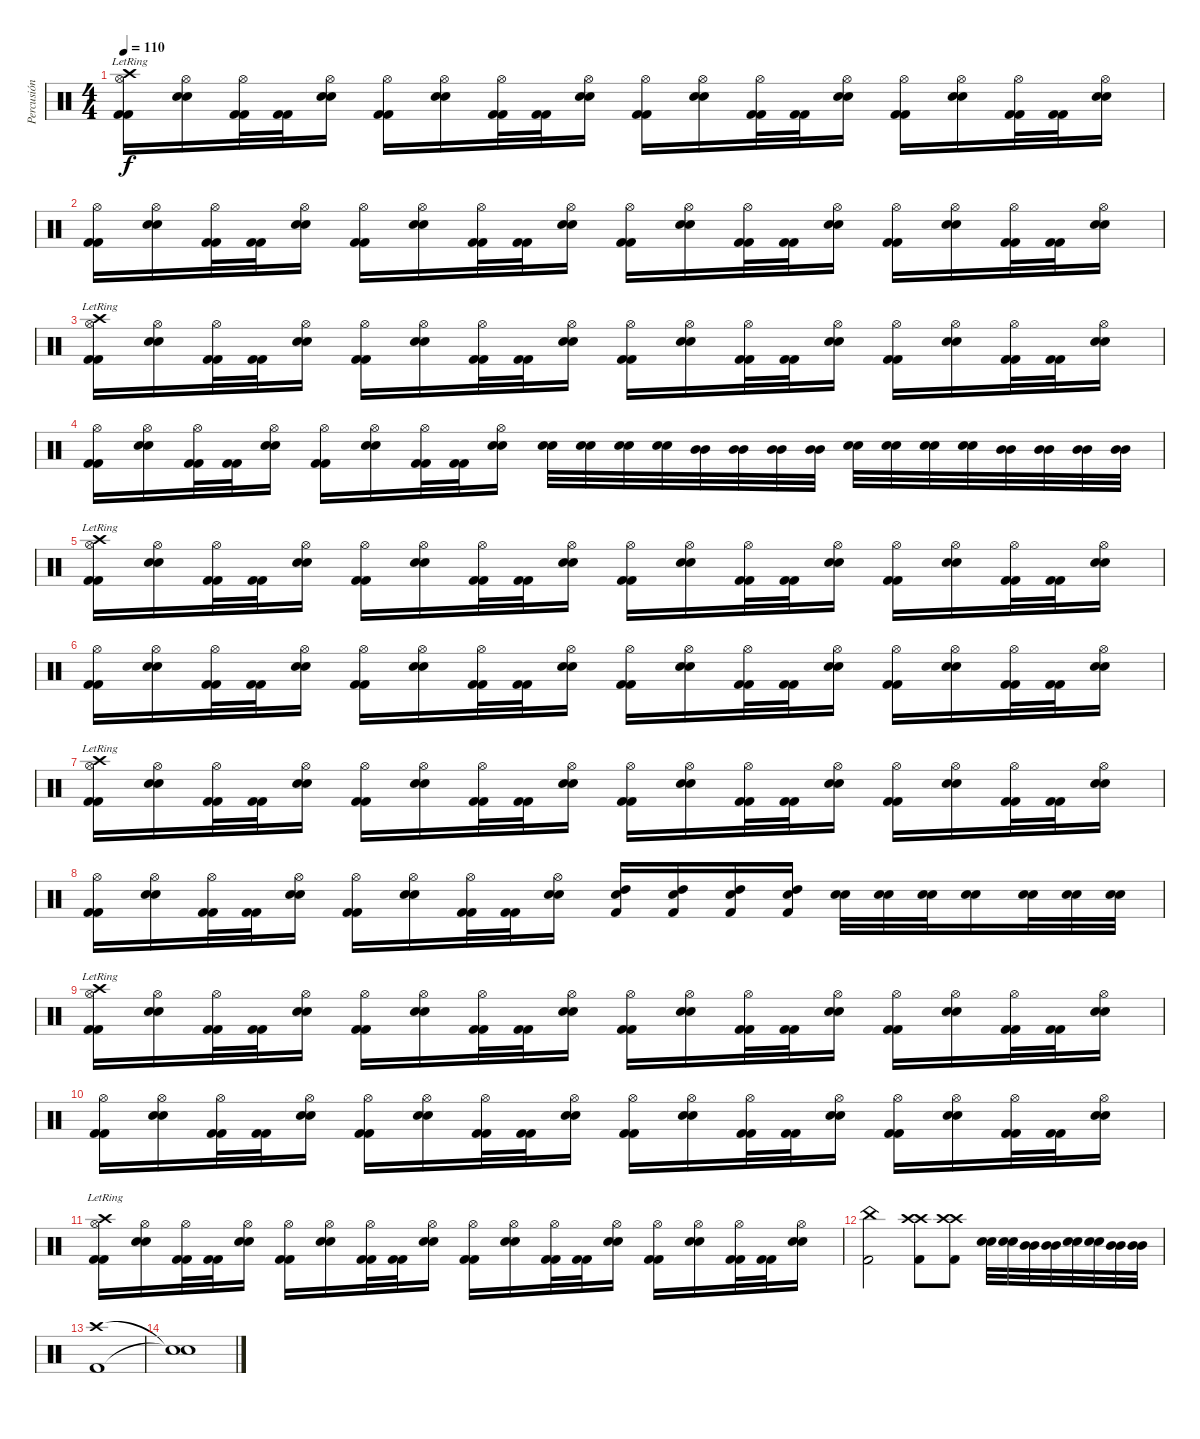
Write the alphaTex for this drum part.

\track ("Percusión" "Percusión") {instrument percussion}
\staff {score}
\articulation defaults
\ts (4 4)
\tempo 110
\clef neutral
\ks c
("Kick (hit) 2" "Kick (hit) 2" "Hi-Hat (open)" "Crash high (hit)"{lr}).16{dy f} ("Snare (hit) 2" "Snare (hit) 2" "Hi-Hat (open)").16 ("Kick (hit) 2" "Kick (hit) 2" "Hi-Hat (open)").32 ("Kick (hit) 2" "Kick (hit) 2").32 ("Snare (hit) 2" "Snare (hit) 2" "Hi-Hat (open)").16 ("Kick (hit) 2" "Kick (hit) 2" "Hi-Hat (open)").16 ("Snare (hit) 2" "Snare (hit) 2" "Hi-Hat (open)").16 ("Kick (hit) 2" "Kick (hit) 2" "Hi-Hat (open)").32 ("Kick (hit) 2" "Kick (hit) 2").32 ("Snare (hit) 2" "Snare (hit) 2" "Hi-Hat (open)").16 ("Kick (hit) 2" "Kick (hit) 2" "Hi-Hat (open)").16 ("Snare (hit) 2" "Snare (hit) 2" "Hi-Hat (open)").16 ("Kick (hit) 2" "Kick (hit) 2" "Hi-Hat (open)").32 ("Kick (hit) 2" "Kick (hit) 2").32 ("Snare (hit) 2" "Snare (hit) 2" "Hi-Hat (open)").16 ("Kick (hit) 2" "Kick (hit) 2" "Hi-Hat (open)").16 ("Snare (hit) 2" "Snare (hit) 2" "Hi-Hat (open)").16 ("Kick (hit) 2" "Kick (hit) 2" "Hi-Hat (open)").32 ("Kick (hit) 2" "Kick (hit) 2").32 ("Snare (hit) 2" "Snare (hit) 2" "Hi-Hat (open)").16 |
("Kick (hit) 2" "Kick (hit) 2" "Hi-Hat (open)").16 ("Snare (hit) 2" "Snare (hit) 2" "Hi-Hat (open)").16 ("Kick (hit) 2" "Kick (hit) 2" "Hi-Hat (open)").32 ("Kick (hit) 2" "Kick (hit) 2").32 ("Snare (hit) 2" "Snare (hit) 2" "Hi-Hat (open)").16 ("Kick (hit) 2" "Kick (hit) 2" "Hi-Hat (open)").16 ("Snare (hit) 2" "Snare (hit) 2" "Hi-Hat (open)").16 ("Kick (hit) 2" "Kick (hit) 2" "Hi-Hat (open)").32 ("Kick (hit) 2" "Kick (hit) 2").32 ("Snare (hit) 2" "Snare (hit) 2" "Hi-Hat (open)").16 ("Kick (hit) 2" "Kick (hit) 2" "Hi-Hat (open)").16 ("Snare (hit) 2" "Snare (hit) 2" "Hi-Hat (open)").16 ("Kick (hit) 2" "Kick (hit) 2" "Hi-Hat (open)").32 ("Kick (hit) 2" "Kick (hit) 2").32 ("Snare (hit) 2" "Snare (hit) 2" "Hi-Hat (open)").16 ("Kick (hit) 2" "Kick (hit) 2" "Hi-Hat (open)").16 ("Snare (hit) 2" "Snare (hit) 2" "Hi-Hat (open)").16 ("Kick (hit) 2" "Kick (hit) 2" "Hi-Hat (open)").32 ("Kick (hit) 2" "Kick (hit) 2").32 ("Snare (hit) 2" "Snare (hit) 2" "Hi-Hat (open)").16 |
("Kick (hit) 2" "Kick (hit) 2" "Hi-Hat (open)" "Crash high (hit)"{lr}).16 ("Snare (hit) 2" "Snare (hit) 2" "Hi-Hat (open)").16 ("Kick (hit) 2" "Kick (hit) 2" "Hi-Hat (open)").32 ("Kick (hit) 2" "Kick (hit) 2").32 ("Snare (hit) 2" "Snare (hit) 2" "Hi-Hat (open)").16 ("Kick (hit) 2" "Kick (hit) 2" "Hi-Hat (open)").16 ("Snare (hit) 2" "Snare (hit) 2" "Hi-Hat (open)").16 ("Kick (hit) 2" "Kick (hit) 2" "Hi-Hat (open)").32 ("Kick (hit) 2" "Kick (hit) 2").32 ("Snare (hit) 2" "Snare (hit) 2" "Hi-Hat (open)").16 ("Kick (hit) 2" "Kick (hit) 2" "Hi-Hat (open)").16 ("Snare (hit) 2" "Snare (hit) 2" "Hi-Hat (open)").16 ("Kick (hit) 2" "Kick (hit) 2" "Hi-Hat (open)").32 ("Kick (hit) 2" "Kick (hit) 2").32 ("Snare (hit) 2" "Snare (hit) 2" "Hi-Hat (open)").16 ("Kick (hit) 2" "Kick (hit) 2" "Hi-Hat (open)").16 ("Snare (hit) 2" "Snare (hit) 2" "Hi-Hat (open)").16 ("Kick (hit) 2" "Kick (hit) 2" "Hi-Hat (open)").32 ("Kick (hit) 2" "Kick (hit) 2").32 ("Snare (hit) 2" "Snare (hit) 2" "Hi-Hat (open)").16 |
("Kick (hit) 2" "Kick (hit) 2" "Hi-Hat (open)").16 ("Snare (hit) 2" "Snare (hit) 2" "Hi-Hat (open)").16 ("Kick (hit) 2" "Kick (hit) 2" "Hi-Hat (open)").32 ("Kick (hit) 2" "Kick (hit) 2").32 ("Snare (hit) 2" "Snare (hit) 2" "Hi-Hat (open)").16 ("Kick (hit) 2" "Kick (hit) 2" "Hi-Hat (open)").16 ("Snare (hit) 2" "Snare (hit) 2" "Hi-Hat (open)").16 ("Kick (hit) 2" "Kick (hit) 2" "Hi-Hat (open)").32 ("Kick (hit) 2" "Kick (hit) 2").32 ("Snare (hit) 2" "Snare (hit) 2" "Hi-Hat (open)").16 ("Snare (hit) 2" "Snare (hit) 2").32 ("Snare (hit) 2" "Snare (hit) 2").32 ("Snare (hit) 2" "Snare (hit) 2").32 ("Snare (hit) 2" "Snare (hit) 2").32 ("Mid Tom (hit)" "Mid Tom (hit)").32 ("Mid Tom (hit)" "Mid Tom (hit)").32 ("Mid Tom (hit)" "Mid Tom (hit)").32 ("Mid Tom (hit)" "Mid Tom (hit)").32 ("Snare (hit) 2" "Snare (hit) 2").32 ("Snare (hit) 2" "Snare (hit) 2").32 ("Snare (hit) 2" "Snare (hit) 2").32 ("Snare (hit) 2" "Snare (hit) 2").32 ("Mid Tom (hit)" "Mid Tom (hit)").32 ("Mid Tom (hit)" "Mid Tom (hit)").32 ("Mid Tom (hit)" "Mid Tom (hit)").32 ("Mid Tom (hit)" "Mid Tom (hit)").32 |
("Kick (hit) 2" "Kick (hit) 2" "Hi-Hat (open)" "Crash high (hit)"{lr}).16 ("Snare (hit) 2" "Snare (hit) 2" "Hi-Hat (open)").16 ("Kick (hit) 2" "Kick (hit) 2" "Hi-Hat (open)").32 ("Kick (hit) 2" "Kick (hit) 2").32 ("Snare (hit) 2" "Snare (hit) 2" "Hi-Hat (open)").16 ("Kick (hit) 2" "Kick (hit) 2" "Hi-Hat (open)").16 ("Snare (hit) 2" "Snare (hit) 2" "Hi-Hat (open)").16 ("Kick (hit) 2" "Kick (hit) 2" "Hi-Hat (open)").32 ("Kick (hit) 2" "Kick (hit) 2").32 ("Snare (hit) 2" "Snare (hit) 2" "Hi-Hat (open)").16 ("Kick (hit) 2" "Kick (hit) 2" "Hi-Hat (open)").16 ("Snare (hit) 2" "Snare (hit) 2" "Hi-Hat (open)").16 ("Kick (hit) 2" "Kick (hit) 2" "Hi-Hat (open)").32 ("Kick (hit) 2" "Kick (hit) 2").32 ("Snare (hit) 2" "Snare (hit) 2" "Hi-Hat (open)").16 ("Kick (hit) 2" "Kick (hit) 2" "Hi-Hat (open)").16 ("Snare (hit) 2" "Snare (hit) 2" "Hi-Hat (open)").16 ("Kick (hit) 2" "Kick (hit) 2" "Hi-Hat (open)").32 ("Kick (hit) 2" "Kick (hit) 2").32 ("Snare (hit) 2" "Snare (hit) 2" "Hi-Hat (open)").16 |
("Kick (hit) 2" "Kick (hit) 2" "Hi-Hat (open)").16 ("Snare (hit) 2" "Snare (hit) 2" "Hi-Hat (open)").16 ("Kick (hit) 2" "Kick (hit) 2" "Hi-Hat (open)").32 ("Kick (hit) 2" "Kick (hit) 2").32 ("Snare (hit) 2" "Snare (hit) 2" "Hi-Hat (open)").16 ("Kick (hit) 2" "Kick (hit) 2" "Hi-Hat (open)").16 ("Snare (hit) 2" "Snare (hit) 2" "Hi-Hat (open)").16 ("Kick (hit) 2" "Kick (hit) 2" "Hi-Hat (open)").32 ("Kick (hit) 2" "Kick (hit) 2").32 ("Snare (hit) 2" "Snare (hit) 2" "Hi-Hat (open)").16 ("Kick (hit) 2" "Kick (hit) 2" "Hi-Hat (open)").16 ("Snare (hit) 2" "Snare (hit) 2" "Hi-Hat (open)").16 ("Kick (hit) 2" "Kick (hit) 2" "Hi-Hat (open)").32 ("Kick (hit) 2" "Kick (hit) 2").32 ("Snare (hit) 2" "Snare (hit) 2" "Hi-Hat (open)").16 ("Kick (hit) 2" "Kick (hit) 2" "Hi-Hat (open)").16 ("Snare (hit) 2" "Snare (hit) 2" "Hi-Hat (open)").16 ("Kick (hit) 2" "Kick (hit) 2" "Hi-Hat (open)").32 ("Kick (hit) 2" "Kick (hit) 2").32 ("Snare (hit) 2" "Snare (hit) 2" "Hi-Hat (open)").16 |
("Kick (hit) 2" "Kick (hit) 2" "Hi-Hat (open)" "Crash high (hit)"{lr}).16 ("Snare (hit) 2" "Snare (hit) 2" "Hi-Hat (open)").16 ("Kick (hit) 2" "Kick (hit) 2" "Hi-Hat (open)").32 ("Kick (hit) 2" "Kick (hit) 2").32 ("Snare (hit) 2" "Snare (hit) 2" "Hi-Hat (open)").16 ("Kick (hit) 2" "Kick (hit) 2" "Hi-Hat (open)").16 ("Snare (hit) 2" "Snare (hit) 2" "Hi-Hat (open)").16 ("Kick (hit) 2" "Kick (hit) 2" "Hi-Hat (open)").32 ("Kick (hit) 2" "Kick (hit) 2").32 ("Snare (hit) 2" "Snare (hit) 2" "Hi-Hat (open)").16 ("Kick (hit) 2" "Kick (hit) 2" "Hi-Hat (open)").16 ("Snare (hit) 2" "Snare (hit) 2" "Hi-Hat (open)").16 ("Kick (hit) 2" "Kick (hit) 2" "Hi-Hat (open)").32 ("Kick (hit) 2" "Kick (hit) 2").32 ("Snare (hit) 2" "Snare (hit) 2" "Hi-Hat (open)").16 ("Kick (hit) 2" "Kick (hit) 2" "Hi-Hat (open)").16 ("Snare (hit) 2" "Snare (hit) 2" "Hi-Hat (open)").16 ("Kick (hit) 2" "Kick (hit) 2" "Hi-Hat (open)").32 ("Kick (hit) 2" "Kick (hit) 2").32 ("Snare (hit) 2" "Snare (hit) 2" "Hi-Hat (open)").16 |
("Kick (hit) 2" "Kick (hit) 2" "Hi-Hat (open)").16 ("Snare (hit) 2" "Snare (hit) 2" "Hi-Hat (open)").16 ("Kick (hit) 2" "Kick (hit) 2" "Hi-Hat (open)").32 ("Kick (hit) 2" "Kick (hit) 2").32 ("Snare (hit) 2" "Snare (hit) 2" "Hi-Hat (open)").16 ("Kick (hit) 2" "Kick (hit) 2" "Hi-Hat (open)").16 ("Snare (hit) 2" "Snare (hit) 2" "Hi-Hat (open)").16 ("Kick (hit) 2" "Kick (hit) 2" "Hi-Hat (open)").32 ("Kick (hit) 2" "Kick (hit) 2").32 ("Snare (hit) 2" "Snare (hit) 2" "Hi-Hat (open)").16 ("Snare (hit) 2" "High Tom (hit)" "Kick (hit) 2").16 ("Snare (hit) 2" "High Tom (hit)" "Kick (hit) 2").16 ("Snare (hit) 2" "High Tom (hit)" "Kick (hit) 2").16 ("Snare (hit) 2" "High Tom (hit)" "Kick (hit) 2").16 ("Snare (hit) 2" "Snare (hit) 2").32 ("Snare (hit) 2" "Snare (hit) 2").32 ("Snare (hit) 2" "Snare (hit) 2").32 ("Snare (hit) 2" "Snare (hit) 2").16 ("Snare (hit) 2" "Snare (hit) 2").32 ("Snare (hit) 2" "Snare (hit) 2").32 ("Snare (hit) 2" "Snare (hit) 2").32 |
("Kick (hit) 2" "Kick (hit) 2" "Hi-Hat (open)" "Crash high (hit)"{lr}).16 ("Snare (hit) 2" "Snare (hit) 2" "Hi-Hat (open)").16 ("Kick (hit) 2" "Kick (hit) 2" "Hi-Hat (open)").32 ("Kick (hit) 2" "Kick (hit) 2").32 ("Snare (hit) 2" "Snare (hit) 2" "Hi-Hat (open)").16 ("Kick (hit) 2" "Kick (hit) 2" "Hi-Hat (open)").16 ("Snare (hit) 2" "Snare (hit) 2" "Hi-Hat (open)").16 ("Kick (hit) 2" "Kick (hit) 2" "Hi-Hat (open)").32 ("Kick (hit) 2" "Kick (hit) 2").32 ("Snare (hit) 2" "Snare (hit) 2" "Hi-Hat (open)").16 ("Kick (hit) 2" "Kick (hit) 2" "Hi-Hat (open)").16 ("Snare (hit) 2" "Snare (hit) 2" "Hi-Hat (open)").16 ("Kick (hit) 2" "Kick (hit) 2" "Hi-Hat (open)").32 ("Kick (hit) 2" "Kick (hit) 2").32 ("Snare (hit) 2" "Snare (hit) 2" "Hi-Hat (open)").16 ("Kick (hit) 2" "Kick (hit) 2" "Hi-Hat (open)").16 ("Snare (hit) 2" "Snare (hit) 2" "Hi-Hat (open)").16 ("Kick (hit) 2" "Kick (hit) 2" "Hi-Hat (open)").32 ("Kick (hit) 2" "Kick (hit) 2").32 ("Snare (hit) 2" "Snare (hit) 2" "Hi-Hat (open)").16 |
("Kick (hit) 2" "Kick (hit) 2" "Hi-Hat (open)").16 ("Snare (hit) 2" "Snare (hit) 2" "Hi-Hat (open)").16 ("Kick (hit) 2" "Kick (hit) 2" "Hi-Hat (open)").32 ("Kick (hit) 2" "Kick (hit) 2").32 ("Snare (hit) 2" "Snare (hit) 2" "Hi-Hat (open)").16 ("Kick (hit) 2" "Kick (hit) 2" "Hi-Hat (open)").16 ("Snare (hit) 2" "Snare (hit) 2" "Hi-Hat (open)").16 ("Kick (hit) 2" "Kick (hit) 2" "Hi-Hat (open)").32 ("Kick (hit) 2" "Kick (hit) 2").32 ("Snare (hit) 2" "Snare (hit) 2" "Hi-Hat (open)").16 ("Kick (hit) 2" "Kick (hit) 2" "Hi-Hat (open)").16 ("Snare (hit) 2" "Snare (hit) 2" "Hi-Hat (open)").16 ("Kick (hit) 2" "Kick (hit) 2" "Hi-Hat (open)").32 ("Kick (hit) 2" "Kick (hit) 2").32 ("Snare (hit) 2" "Snare (hit) 2" "Hi-Hat (open)").16 ("Kick (hit) 2" "Kick (hit) 2" "Hi-Hat (open)").16 ("Snare (hit) 2" "Snare (hit) 2" "Hi-Hat (open)").16 ("Kick (hit) 2" "Kick (hit) 2" "Hi-Hat (open)").32 ("Kick (hit) 2" "Kick (hit) 2").32 ("Snare (hit) 2" "Snare (hit) 2" "Hi-Hat (open)").16 |
("Kick (hit) 2" "Kick (hit) 2" "Hi-Hat (open)" "Crash high (hit)"{lr}).16 ("Snare (hit) 2" "Snare (hit) 2" "Hi-Hat (open)").16 ("Kick (hit) 2" "Kick (hit) 2" "Hi-Hat (open)").32 ("Kick (hit) 2" "Kick (hit) 2").32 ("Snare (hit) 2" "Snare (hit) 2" "Hi-Hat (open)").16 ("Kick (hit) 2" "Kick (hit) 2" "Hi-Hat (open)").16 ("Snare (hit) 2" "Snare (hit) 2" "Hi-Hat (open)").16 ("Kick (hit) 2" "Kick (hit) 2" "Hi-Hat (open)").32 ("Kick (hit) 2" "Kick (hit) 2").32 ("Snare (hit) 2" "Snare (hit) 2" "Hi-Hat (open)").16 ("Kick (hit) 2" "Kick (hit) 2" "Hi-Hat (open)").16 ("Snare (hit) 2" "Snare (hit) 2" "Hi-Hat (open)").16 ("Kick (hit) 2" "Kick (hit) 2" "Hi-Hat (open)").32 ("Kick (hit) 2" "Kick (hit) 2").32 ("Snare (hit) 2" "Snare (hit) 2" "Hi-Hat (open)").16 ("Kick (hit) 2" "Kick (hit) 2" "Hi-Hat (open)").16 ("Snare (hit) 2" "Snare (hit) 2" "Hi-Hat (open)").16 ("Kick (hit) 2" "Kick (hit) 2" "Hi-Hat (open)").32 ("Kick (hit) 2" "Kick (hit) 2").32 ("Snare (hit) 2" "Snare (hit) 2" "Hi-Hat (open)").16 |
("China (hit)" "Kick (hit) 2").2 ("Crash high (hit)" "Crash high (hit)" "Kick (hit) 2").8 ("Crash high (hit)" "Crash high (hit)" "Kick (hit) 2").8 ("Snare (hit) 2" "Snare (hit) 2").32 ("Snare (hit) 2" "Snare (hit) 2").32 ("Mid Tom (hit)" "Mid Tom (hit)").32 ("Mid Tom (hit)" "Mid Tom (hit)").32 ("Snare (hit) 2" "Snare (hit) 2").32 ("Snare (hit) 2" "Snare (hit) 2").32 ("Mid Tom (hit)" "Mid Tom (hit)").32 ("Mid Tom (hit)" "Mid Tom (hit)").32 |
("Crash high (hit)" "Kick (hit) 2").1 |
("Snare (hit)"{t} "Snare (hit)"{t}).1
